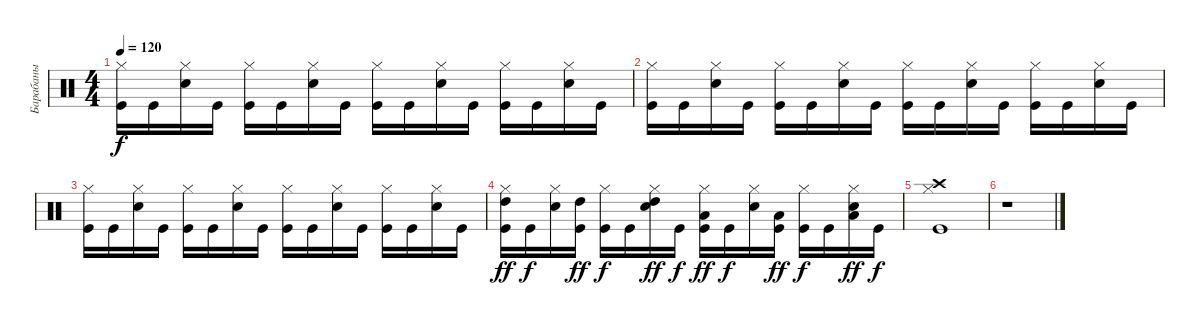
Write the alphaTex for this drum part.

\track ("Барабаны" "Барабаны") {instrument percussion}
\staff {score}
\articulation defaults
\ts (4 4)
\tempo 120
\clef neutral
\ks c
("Kick (hit)" "Hi-Hat (closed)").16{dy f} "Kick (hit)".16 ("Snare (hit) 2" "Hi-Hat (closed)").16 "Kick (hit)".16 ("Kick (hit)" "Hi-Hat (closed)").16 "Kick (hit)".16 ("Snare (hit) 2" "Hi-Hat (closed)").16 "Kick (hit)".16 ("Kick (hit)" "Hi-Hat (closed)").16 "Kick (hit)".16 ("Snare (hit) 2" "Hi-Hat (closed)").16 "Kick (hit)".16 ("Kick (hit)" "Hi-Hat (closed)").16 "Kick (hit)".16 ("Snare (hit) 2" "Hi-Hat (closed)").16 "Kick (hit)".16 |
("Kick (hit)" "Hi-Hat (closed)").16 "Kick (hit)".16 ("Snare (hit) 2" "Hi-Hat (closed)").16 "Kick (hit)".16 ("Kick (hit)" "Hi-Hat (closed)").16 "Kick (hit)".16 ("Snare (hit) 2" "Hi-Hat (closed)").16 "Kick (hit)".16 ("Kick (hit)" "Hi-Hat (closed)").16 "Kick (hit)".16 ("Snare (hit) 2" "Hi-Hat (closed)").16 "Kick (hit)".16 ("Kick (hit)" "Hi-Hat (closed)").16 "Kick (hit)".16 ("Snare (hit) 2" "Hi-Hat (closed)").16 "Kick (hit)".16 |
("Kick (hit)" "Hi-Hat (closed)").16 "Kick (hit)".16 ("Snare (hit) 2" "Hi-Hat (closed)").16 "Kick (hit)".16 ("Kick (hit)" "Hi-Hat (closed)").16 "Kick (hit)".16 ("Snare (hit) 2" "Hi-Hat (closed)").16 "Kick (hit)".16 ("Kick (hit)" "Hi-Hat (closed)").16 "Kick (hit)".16 ("Snare (hit) 2" "Hi-Hat (closed)").16 "Kick (hit)".16 ("Kick (hit)" "Hi-Hat (closed)").16 "Kick (hit)".16 ("Snare (hit) 2" "Hi-Hat (closed)").16 "Kick (hit)".16 |
("Kick (hit)" "Hi-Hat (closed)" "High Tom (hit)").16{dy ff} "Kick (hit)".16{dy f} ("Snare (hit) 2" "Hi-Hat (closed)").16 ("Kick (hit)" "High Tom (hit)").16{dy ff} ("Kick (hit)" "Hi-Hat (closed)").16{dy f} "Kick (hit)".16 ("Snare (hit) 2" "Hi-Hat (closed)" "High Tom (hit)").16{dy ff} "Kick (hit)".16{dy f} ("Kick (hit)" "Hi-Hat (closed)" "Low Floor Tom (hit)").16{dy ff} "Kick (hit)".16{dy f} ("Snare (hit) 2" "Hi-Hat (closed)").16 ("Kick (hit)" "Low Floor Tom (hit)").16{dy ff} ("Kick (hit)" "Hi-Hat (closed)").16{dy f} "Kick (hit)".16 ("Snare (hit) 2" "Hi-Hat (closed)" "Low Floor Tom (hit)").16{dy ff} "Kick (hit)".16{dy f} |
("Kick (hit)" "Hi-Hat (closed)" "Crash high (hit)").1 |
r.1
